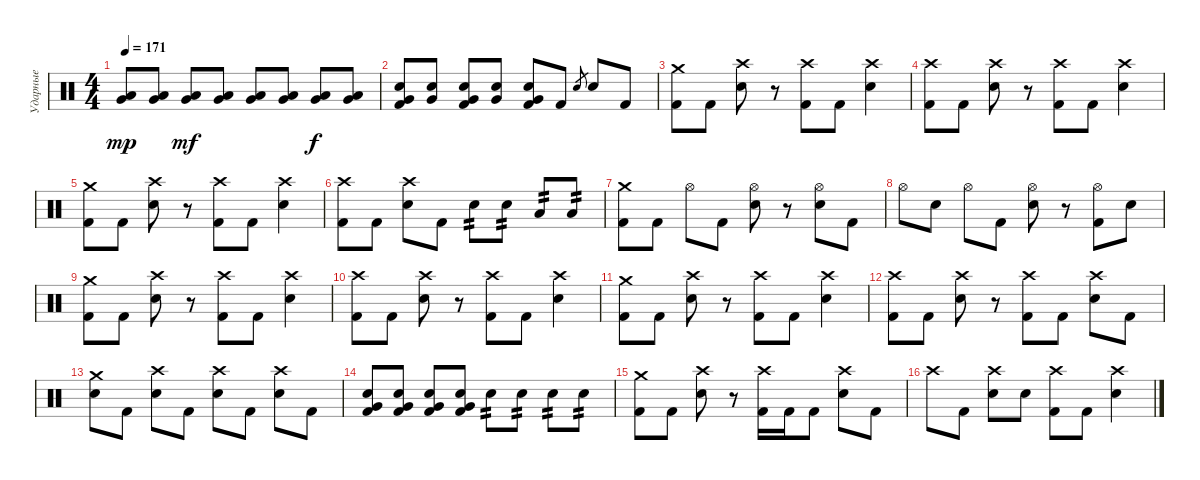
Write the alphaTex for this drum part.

\track ("Ударные" "Ударные") {instrument percussion}
\staff {score}
\articulation defaults
\ts (4 4)
\tempo 171
\clef neutral
\ks c
("Low Tom (hit)" "Very Low Tom (hit)").8{dy mp} ("Low Tom (hit)" "Very Low Tom (hit)").8 ("Low Tom (hit)" "Very Low Tom (hit)").8{dy mf} ("Low Tom (hit)" "Very Low Tom (hit)").8 ("Low Tom (hit)" "Very Low Tom (hit)").8 ("Low Tom (hit)" "Very Low Tom (hit)").8 ("Low Tom (hit)" "Very Low Tom (hit)").8{dy f} ("Low Tom (hit)" "Very Low Tom (hit)").8 |
("Very Low Tom (hit)" "Electric Snare (hit)" "Kick (hit) 2").8 ("Very Low Tom (hit)" "Electric Snare (hit)").8 ("Very Low Tom (hit)" "Electric Snare (hit)" "Kick (hit) 2").8 ("Very Low Tom (hit)" "Electric Snare (hit)").8 ("Very Low Tom (hit)" "Electric Snare (hit)" "Kick (hit) 2").8 "Kick (hit) 2".8 "Electric Snare (hit)".8{gr} "Electric Snare (hit)".8 "Kick (hit) 2".8 |
("Crash medium (hit)" "Kick (hit) 2").8 "Kick (hit) 2".8 ("Crash high (hit)" "Electric Snare (hit)").8 r.8 ("Crash high (hit)" "Kick (hit) 2").8 "Kick (hit) 2".8 ("Crash high (hit)" "Electric Snare (hit)").4 |
("Crash high (hit)" "Kick (hit) 2").8 "Kick (hit) 2".8 ("Crash high (hit)" "Electric Snare (hit)").8 r.8 ("Crash high (hit)" "Kick (hit) 2").8 "Kick (hit) 2".8 ("Crash high (hit)" "Electric Snare (hit)").4 |
("Crash medium (hit)" "Kick (hit) 2").8 "Kick (hit) 2".8 ("Crash high (hit)" "Electric Snare (hit)").8 r.8 ("Crash high (hit)" "Kick (hit) 2").8 "Kick (hit) 2".8 ("Crash high (hit)" "Electric Snare (hit)").4 |
("Crash high (hit)" "Kick (hit) 2").8 "Kick (hit) 2".8 ("Crash high (hit)" "Electric Snare (hit)").8 "Kick (hit) 2".8 "Electric Snare (hit)".8{tp 2} "Electric Snare (hit)".8{tp 2} "Low Tom (hit)".8{tp 2} "Low Tom (hit)".8{tp 2} |
("Crash medium (hit)" "Kick (hit) 2").8 "Kick (hit) 2".8 "Hi-Hat (open)".8 "Kick (hit) 2".8 ("Hi-Hat (open)" "Electric Snare (hit)").8 r.8 ("Hi-Hat (open)" "Electric Snare (hit)").8 "Kick (hit) 2".8 |
"Hi-Hat (open)".8 "Electric Snare (hit)".8 "Hi-Hat (open)".8 "Kick (hit) 2".8 ("Hi-Hat (open)" "Electric Snare (hit)").8 r.8 ("Hi-Hat (open)" "Kick (hit) 2").8 "Electric Snare (hit)".8 |
("Crash medium (hit)" "Kick (hit) 2").8 "Kick (hit) 2".8 ("Crash high (hit)" "Electric Snare (hit)").8 r.8 ("Crash high (hit)" "Kick (hit) 2").8 "Kick (hit) 2".8 ("Crash high (hit)" "Electric Snare (hit)").4 |
("Crash high (hit)" "Kick (hit) 2").8 "Kick (hit) 2".8 ("Crash high (hit)" "Electric Snare (hit)").8 r.8 ("Crash high (hit)" "Kick (hit) 2").8 "Kick (hit) 2".8 ("Crash high (hit)" "Electric Snare (hit)").4 |
("Crash medium (hit)" "Kick (hit) 2").8 "Kick (hit) 2".8 ("Crash high (hit)" "Electric Snare (hit)").8 r.8 ("Crash high (hit)" "Kick (hit) 2").8 "Kick (hit) 2".8 ("Crash high (hit)" "Electric Snare (hit)").4 |
("Crash high (hit)" "Kick (hit) 2").8 "Kick (hit) 2".8 ("Crash high (hit)" "Electric Snare (hit)").8 r.8 ("Crash high (hit)" "Kick (hit) 2").8 "Kick (hit) 2".8 ("Crash high (hit)" "Electric Snare (hit)").8 "Kick (hit) 2".8 |
("Crash medium (hit)" "Electric Snare (hit)").8 "Kick (hit) 2".8 ("Crash high (hit)" "Electric Snare (hit)").8 "Kick (hit) 2".8 ("Crash high (hit)" "Electric Snare (hit)").8 "Kick (hit) 2".8 ("Crash high (hit)" "Electric Snare (hit)").8 "Kick (hit) 2".8 |
("Electric Snare (hit)" "Very Low Tom (hit)" "Kick (hit) 2").8 ("Electric Snare (hit)" "Very Low Tom (hit)" "Kick (hit) 2").8 ("Electric Snare (hit)" "Very Low Tom (hit)" "Kick (hit) 2").8 ("Electric Snare (hit)" "Very Low Tom (hit)" "Kick (hit) 2").8 "Electric Snare (hit)".8{tp 2} "Electric Snare (hit)".8{tp 2} "Electric Snare (hit)".8{tp 2} "Electric Snare (hit)".8{tp 2} |
("Crash medium (hit)" "Kick (hit) 2").8 "Kick (hit) 2".8 ("Crash high (hit)" "Electric Snare (hit)").8 r.8 ("Crash high (hit)" "Kick (hit) 2").16 "Kick (hit) 2".16 "Kick (hit) 2".8 ("Crash high (hit)" "Electric Snare (hit)").8 "Kick (hit) 2".8 |
"Crash high (hit)".8 "Kick (hit) 2".8 ("Crash high (hit)" "Electric Snare (hit)").8 "Electric Snare (hit)".8 ("Crash high (hit)" "Kick (hit) 2").8 "Kick (hit) 2".8 ("Crash high (hit)" "Electric Snare (hit)").4
